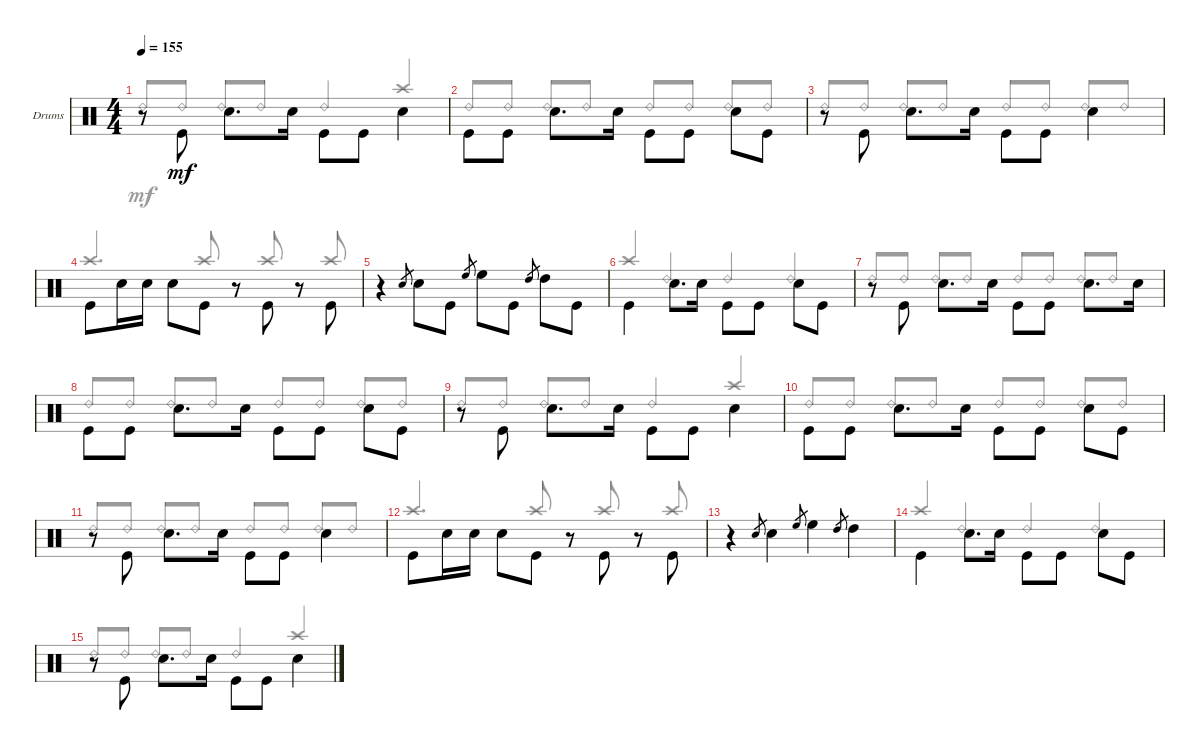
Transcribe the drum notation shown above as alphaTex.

\defaultSystemsLayout 4
\bracketExtendMode groupsimilarinstruments
\firstSystemTrackNameOrientation horizontal
\otherSystemsTrackNameOrientation horizontal
\track ("PETER CRISS" "Drums") {instrument percussion}
\staff {score}
\articulation defaults
\voice
\ts (4 4)
\tempo 155
\clef neutral
\ks c
r.8{dy mf beam invert} "Kick (hit)".8{beam invert} "Snare (hit) 2".8{d beam invert} "Snare (hit) 2".16 "Kick (hit)".8{beam invert} "Kick (hit)".8 "Snare (hit) 2".4{beam invert} |
"Kick (hit)".8{beam invert} "Kick (hit)".8 "Snare (hit) 2".8{d beam invert} "Snare (hit) 2".16 "Kick (hit)".8{beam invert} "Kick (hit)".8 "Snare (hit) 2".8{beam invert} "Kick (hit)".8 |
r.8{beam invert} "Kick (hit)".8{beam invert} "Snare (hit) 2".8{d beam invert} "Snare (hit) 2".16 "Kick (hit)".8{beam invert} "Kick (hit)".8 "Snare (hit) 2".4{beam invert} |
"Kick (hit)".8{beam invert} "Snare (hit) 2".16 "Snare (hit) 2".16 "Snare (hit) 2".8{beam invert} "Kick (hit)".8 r.8 "Kick (hit)".8{beam invert} r.8 "Kick (hit)".8{beam invert} |
r.4 "Snare (hit) 2".8{gr} "Snare (hit) 2".8{beam invert} "Kick (hit)".8 "High Floor Tom (hit)".8{gr} "High Floor Tom (hit)".8{beam invert} "Kick (hit)".8 "High Tom (hit)".8{gr} "High Tom (hit)".8{beam invert} "Kick (hit)".8 |
"Kick (hit)".4{beam invert} "Snare (hit) 2".8{d beam invert} "Snare (hit) 2".16 "Kick (hit)".8{beam invert} "Kick (hit)".8 "Snare (hit) 2".8{beam invert} "Kick (hit)".8 |
r.8{beam invert} "Kick (hit)".8{beam invert} "Snare (hit) 2".8{d beam invert} "Snare (hit) 2".16 "Kick (hit)".8{beam invert} "Kick (hit)".8 "Snare (hit) 2".8{d beam invert} "Snare (hit) 2".16 |
"Kick (hit)".8{beam invert} "Kick (hit)".8 "Snare (hit) 2".8{d beam invert} "Snare (hit) 2".16 "Kick (hit)".8{beam invert} "Kick (hit)".8 "Snare (hit) 2".8{beam invert} "Kick (hit)".8 |
r.8{beam invert} "Kick (hit)".8{beam invert} "Snare (hit) 2".8{d beam invert} "Snare (hit) 2".16 "Kick (hit)".8{beam invert} "Kick (hit)".8 "Snare (hit) 2".4{beam invert} |
"Kick (hit)".8{beam invert} "Kick (hit)".8 "Snare (hit) 2".8{d beam invert} "Snare (hit) 2".16 "Kick (hit)".8{beam invert} "Kick (hit)".8 "Snare (hit) 2".8{beam invert} "Kick (hit)".8 |
r.8{beam invert} "Kick (hit)".8{beam invert} "Snare (hit) 2".8{d beam invert} "Snare (hit) 2".16 "Kick (hit)".8{beam invert} "Kick (hit)".8 "Snare (hit) 2".4{beam invert} |
"Kick (hit)".8{beam invert} "Snare (hit) 2".16 "Snare (hit) 2".16 "Snare (hit) 2".8{beam invert} "Kick (hit)".8 r.8 "Kick (hit)".8{beam invert} r.8 "Kick (hit)".8{beam invert} |
r.4 "Snare (hit) 2".8{gr} "Snare (hit) 2".4 "High Floor Tom (hit)".8{gr} "High Floor Tom (hit)".4 "High Tom (hit)".8{gr} "High Tom (hit)".4 |
"Kick (hit)".4{beam invert} "Snare (hit) 2".8{d beam invert} "Snare (hit) 2".16 "Kick (hit)".8{beam invert} "Kick (hit)".8 "Snare (hit) 2".8{beam invert} "Kick (hit)".8 |
r.8{beam invert} "Kick (hit)".8{beam invert} "Snare (hit) 2".8{d beam invert} "Snare (hit) 2".16 "Kick (hit)".8{beam invert} "Kick (hit)".8 "Snare (hit) 2".4{beam invert}
\voice
\clef neutral
\ottava regular
\simile none
\ks c "Ride (bell) 2".8{dy mf beam invert} "Ride (bell) 2".8 "Ride (bell) 2".8{beam invert} "Ride (bell) 2".8 "Ride (bell) 2".4{beam invert} "Crash high (hit)".4{beam invert}
|
"Ride (bell) 2".8{beam invert} "Ride (bell) 2".8 "Ride (bell) 2".8{beam invert} "Ride (bell) 2".8 "Ride (bell) 2".8{beam invert} "Ride (bell) 2".8 "Ride (bell) 2".8{beam invert} "Ride (bell) 2".8 |
"Ride (bell) 2".8{beam invert} "Ride (bell) 2".8 "Ride (bell) 2".8{beam invert} "Ride (bell) 2".8 "Ride (bell) 2".8{beam invert} "Ride (bell) 2".8 "Ride (bell) 2".8{beam invert} "Ride (bell) 2".8 |
"Crash high (hit)".4{d beam invert} "Crash high (hit)".8{beam invert} r.8 "Crash high (hit)".8{beam invert} r.8 "Crash high (hit)".8{beam invert} |
|
"Crash high (hit)".4{beam invert} "Ride (bell) 2".4{beam invert} "Ride (bell) 2".4{beam invert} "Ride (bell) 2".4{beam invert} |
"Ride (bell) 2".8{beam invert} "Ride (bell) 2".8 "Ride (bell) 2".8{beam invert} "Ride (bell) 2".8 "Ride (bell) 2".8{beam invert} "Ride (bell) 2".8 "Ride (bell) 2".8{beam invert} "Ride (bell) 2".8 |
"Ride (bell) 2".8{beam invert} "Ride (bell) 2".8 "Ride (bell) 2".8{beam invert} "Ride (bell) 2".8 "Ride (bell) 2".8{beam invert} "Ride (bell) 2".8 "Ride (bell) 2".8{beam invert} "Ride (bell) 2".8 |
"Ride (bell) 2".8{beam invert} "Ride (bell) 2".8 "Ride (bell) 2".8{beam invert} "Ride (bell) 2".8 "Ride (bell) 2".4{beam invert} "Crash high (hit)".4{beam invert} |
"Ride (bell) 2".8{beam invert} "Ride (bell) 2".8 "Ride (bell) 2".8{beam invert} "Ride (bell) 2".8 "Ride (bell) 2".8{beam invert} "Ride (bell) 2".8 "Ride (bell) 2".8{beam invert} "Ride (bell) 2".8 |
"Ride (bell) 2".8{beam invert} "Ride (bell) 2".8 "Ride (bell) 2".8{beam invert} "Ride (bell) 2".8 "Ride (bell) 2".8{beam invert} "Ride (bell) 2".8 "Ride (bell) 2".8{beam invert} "Ride (bell) 2".8 |
"Crash high (hit)".4{d beam invert} "Crash high (hit)".8{beam invert} r.8 "Crash high (hit)".8{beam invert} r.8 "Crash high (hit)".8{beam invert} |
|
"Crash high (hit)".4{beam invert} "Ride (bell) 2".4{beam invert} "Ride (bell) 2".4{beam invert} "Ride (bell) 2".4{beam invert} |
"Ride (bell) 2".8{beam invert} "Ride (bell) 2".8 "Ride (bell) 2".8{beam invert} "Ride (bell) 2".8 "Ride (bell) 2".4{beam invert} "Crash high (hit)".4{beam invert}
